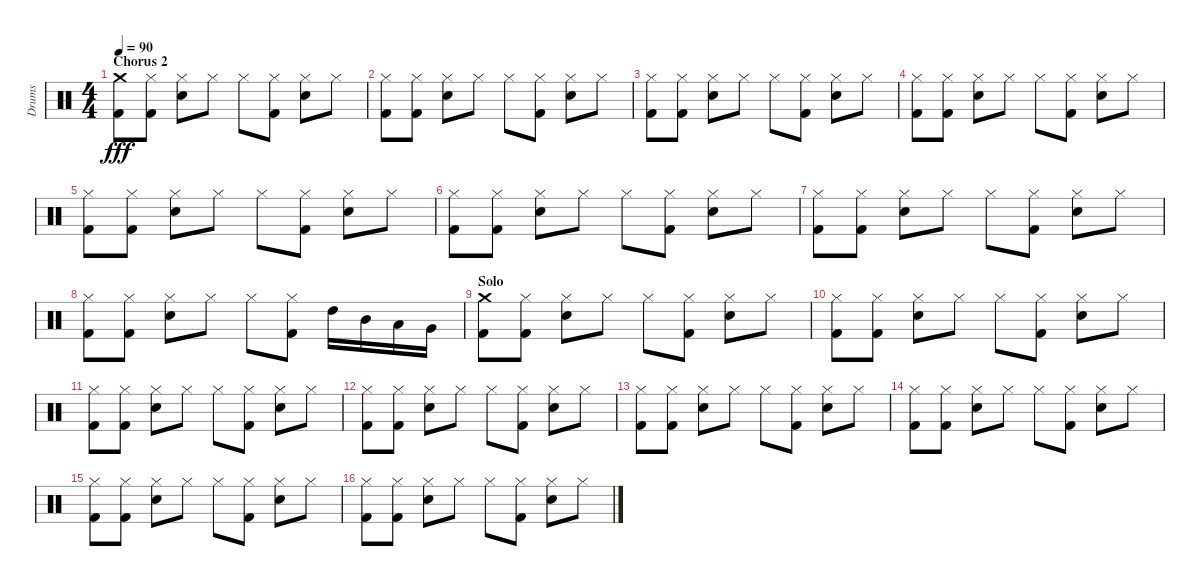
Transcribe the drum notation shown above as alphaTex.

\track ("Drums" "Drums") {instrument percussion}
\staff {score}
\articulation defaults
\ts (4 4)
\section ("" "Chorus 2")
\tempo 90
\clef neutral
\ks c
("Crash medium (hit)" "Kick (hit) 2").8{dy fff} ("Hi-Hat (closed)" "Kick (hit) 2").8 ("Hi-Hat (closed)" "Electric Snare (hit)").8 "Hi-Hat (closed)".8 "Hi-Hat (closed)".8 ("Hi-Hat (closed)" "Kick (hit) 2").8 ("Hi-Hat (closed)" "Electric Snare (hit)").8 "Hi-Hat (closed)".8 |
("Hi-Hat (closed)" "Kick (hit) 2").8 ("Hi-Hat (closed)" "Kick (hit) 2").8 ("Hi-Hat (closed)" "Electric Snare (hit)").8 "Hi-Hat (closed)".8 "Hi-Hat (closed)".8 ("Hi-Hat (closed)" "Kick (hit) 2").8 ("Hi-Hat (closed)" "Electric Snare (hit)").8 "Hi-Hat (closed)".8 |
("Hi-Hat (closed)" "Kick (hit) 2").8 ("Hi-Hat (closed)" "Kick (hit) 2").8 ("Hi-Hat (closed)" "Electric Snare (hit)").8 "Hi-Hat (closed)".8 "Hi-Hat (closed)".8 ("Hi-Hat (closed)" "Kick (hit) 2").8 ("Hi-Hat (closed)" "Electric Snare (hit)").8 "Hi-Hat (closed)".8 |
("Hi-Hat (closed)" "Kick (hit) 2").8 ("Hi-Hat (closed)" "Kick (hit) 2").8 ("Hi-Hat (closed)" "Electric Snare (hit)").8 "Hi-Hat (closed)".8 "Hi-Hat (closed)".8 ("Hi-Hat (closed)" "Kick (hit) 2").8 ("Hi-Hat (closed)" "Electric Snare (hit)").8 "Hi-Hat (closed)".8 |
("Hi-Hat (closed)" "Kick (hit) 2").8 ("Hi-Hat (closed)" "Kick (hit) 2").8 ("Hi-Hat (closed)" "Electric Snare (hit)").8 "Hi-Hat (closed)".8 "Hi-Hat (closed)".8 ("Hi-Hat (closed)" "Kick (hit) 2").8 ("Hi-Hat (closed)" "Electric Snare (hit)").8 "Hi-Hat (closed)".8 |
("Hi-Hat (closed)" "Kick (hit) 2").8 ("Hi-Hat (closed)" "Kick (hit) 2").8 ("Hi-Hat (closed)" "Electric Snare (hit)").8 "Hi-Hat (closed)".8 "Hi-Hat (closed)".8 ("Hi-Hat (closed)" "Kick (hit) 2").8 ("Hi-Hat (closed)" "Electric Snare (hit)").8 "Hi-Hat (closed)".8 |
("Hi-Hat (closed)" "Kick (hit) 2").8 ("Hi-Hat (closed)" "Kick (hit) 2").8 ("Hi-Hat (closed)" "Electric Snare (hit)").8 "Hi-Hat (closed)".8 "Hi-Hat (closed)".8 ("Hi-Hat (closed)" "Kick (hit) 2").8 ("Hi-Hat (closed)" "Electric Snare (hit)").8 "Hi-Hat (closed)".8 |
("Hi-Hat (closed)" "Kick (hit) 2").8 ("Hi-Hat (closed)" "Kick (hit) 2").8 ("Hi-Hat (closed)" "Electric Snare (hit)").8 "Hi-Hat (closed)".8 "Hi-Hat (closed)".8 ("Hi-Hat (closed)" "Kick (hit) 2").8 "High Tom (hit)".16 "Mid Tom (hit)".16 "Low Tom (hit)".16 "Very Low Tom (hit)".16 |
\section ("" "Solo")
("Crash medium (hit)" "Kick (hit) 2").8 ("Hi-Hat (closed)" "Kick (hit) 2").8 ("Hi-Hat (closed)" "Electric Snare (hit)").8 "Hi-Hat (closed)".8 "Hi-Hat (closed)".8 ("Hi-Hat (closed)" "Kick (hit) 2").8 ("Hi-Hat (closed)" "Electric Snare (hit)").8 "Hi-Hat (closed)".8 |
("Hi-Hat (closed)" "Kick (hit) 2").8 ("Hi-Hat (closed)" "Kick (hit) 2").8 ("Hi-Hat (closed)" "Electric Snare (hit)").8 "Hi-Hat (closed)".8 "Hi-Hat (closed)".8 ("Hi-Hat (closed)" "Kick (hit) 2").8 ("Hi-Hat (closed)" "Electric Snare (hit)").8 "Hi-Hat (closed)".8 |
("Hi-Hat (closed)" "Kick (hit) 2").8 ("Hi-Hat (closed)" "Kick (hit) 2").8 ("Hi-Hat (closed)" "Electric Snare (hit)").8 "Hi-Hat (closed)".8 "Hi-Hat (closed)".8 ("Hi-Hat (closed)" "Kick (hit) 2").8 ("Hi-Hat (closed)" "Electric Snare (hit)").8 "Hi-Hat (closed)".8 |
("Hi-Hat (closed)" "Kick (hit) 2").8 ("Hi-Hat (closed)" "Kick (hit) 2").8 ("Hi-Hat (closed)" "Electric Snare (hit)").8 "Hi-Hat (closed)".8 "Hi-Hat (closed)".8 ("Hi-Hat (closed)" "Kick (hit) 2").8 ("Hi-Hat (closed)" "Electric Snare (hit)").8 "Hi-Hat (closed)".8 |
("Hi-Hat (closed)" "Kick (hit) 2").8 ("Hi-Hat (closed)" "Kick (hit) 2").8 ("Hi-Hat (closed)" "Electric Snare (hit)").8 "Hi-Hat (closed)".8 "Hi-Hat (closed)".8 ("Hi-Hat (closed)" "Kick (hit) 2").8 ("Hi-Hat (closed)" "Electric Snare (hit)").8 "Hi-Hat (closed)".8 |
("Hi-Hat (closed)" "Kick (hit) 2").8 ("Hi-Hat (closed)" "Kick (hit) 2").8 ("Hi-Hat (closed)" "Electric Snare (hit)").8 "Hi-Hat (closed)".8 "Hi-Hat (closed)".8 ("Hi-Hat (closed)" "Kick (hit) 2").8 ("Hi-Hat (closed)" "Electric Snare (hit)").8 "Hi-Hat (closed)".8 |
("Hi-Hat (closed)" "Kick (hit) 2").8 ("Hi-Hat (closed)" "Kick (hit) 2").8 ("Hi-Hat (closed)" "Electric Snare (hit)").8 "Hi-Hat (closed)".8 "Hi-Hat (closed)".8 ("Hi-Hat (closed)" "Kick (hit) 2").8 ("Hi-Hat (closed)" "Electric Snare (hit)").8 "Hi-Hat (closed)".8 |
("Hi-Hat (closed)" "Kick (hit) 2").8 ("Hi-Hat (closed)" "Kick (hit) 2").8 ("Hi-Hat (closed)" "Electric Snare (hit)").8 "Hi-Hat (closed)".8 "Hi-Hat (closed)".8 ("Hi-Hat (closed)" "Kick (hit) 2").8 ("Hi-Hat (closed)" "Electric Snare (hit)").8 "Hi-Hat (closed)".8
